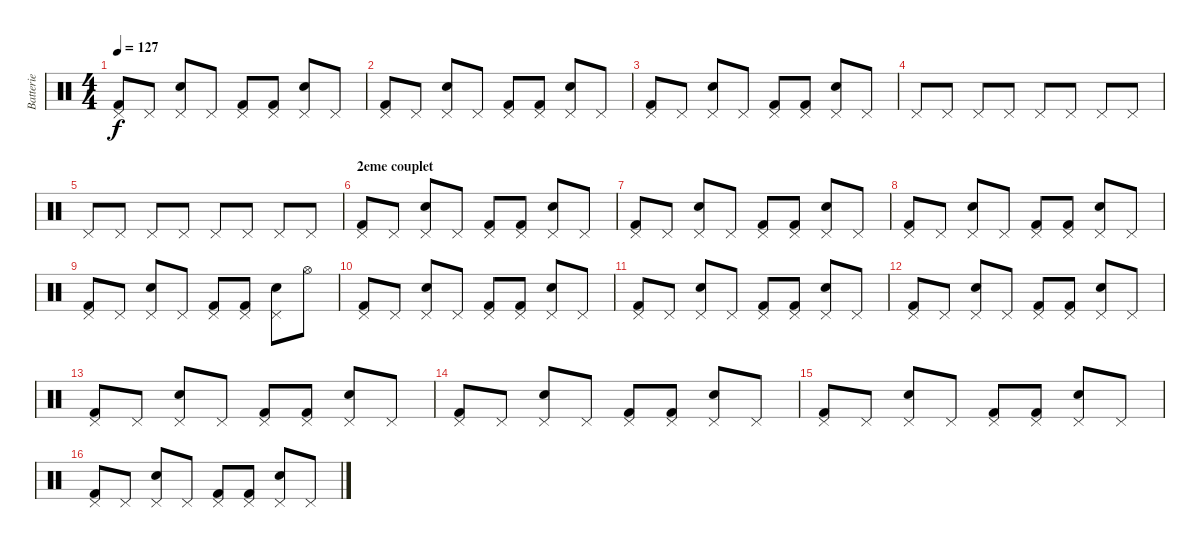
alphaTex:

\track ("Batterie" "Batterie") {instrument percussion}
\staff {score}
\articulation defaults
\ts (4 4)
\tempo 127
\clef neutral
\ks c
("Pedal Hi-Hat (hit)" "Kick (hit) 2").8{dy f} "Pedal Hi-Hat (hit)".8 ("Pedal Hi-Hat (hit)" "Electric Snare (hit)").8 "Pedal Hi-Hat (hit)".8 ("Pedal Hi-Hat (hit)" "Kick (hit) 2").8 ("Pedal Hi-Hat (hit)" "Kick (hit) 2").8 ("Pedal Hi-Hat (hit)" "Electric Snare (hit)").8 "Pedal Hi-Hat (hit)".8 |
("Pedal Hi-Hat (hit)" "Kick (hit) 2").8 "Pedal Hi-Hat (hit)".8 ("Pedal Hi-Hat (hit)" "Electric Snare (hit)").8 "Pedal Hi-Hat (hit)".8 ("Pedal Hi-Hat (hit)" "Kick (hit) 2").8 ("Pedal Hi-Hat (hit)" "Kick (hit) 2").8 ("Pedal Hi-Hat (hit)" "Electric Snare (hit)").8 "Pedal Hi-Hat (hit)".8 |
("Pedal Hi-Hat (hit)" "Kick (hit) 2").8 "Pedal Hi-Hat (hit)".8 ("Pedal Hi-Hat (hit)" "Electric Snare (hit)").8 "Pedal Hi-Hat (hit)".8 ("Pedal Hi-Hat (hit)" "Kick (hit) 2").8 ("Pedal Hi-Hat (hit)" "Kick (hit) 2").8 ("Pedal Hi-Hat (hit)" "Electric Snare (hit)").8 "Pedal Hi-Hat (hit)".8 |
"Pedal Hi-Hat (hit)".8 "Pedal Hi-Hat (hit)".8 "Pedal Hi-Hat (hit)".8 "Pedal Hi-Hat (hit)".8 "Pedal Hi-Hat (hit)".8 "Pedal Hi-Hat (hit)".8 "Pedal Hi-Hat (hit)".8 "Pedal Hi-Hat (hit)".8 |
"Pedal Hi-Hat (hit)".8 "Pedal Hi-Hat (hit)".8 "Pedal Hi-Hat (hit)".8 "Pedal Hi-Hat (hit)".8 "Pedal Hi-Hat (hit)".8 "Pedal Hi-Hat (hit)".8 "Pedal Hi-Hat (hit)".8 "Pedal Hi-Hat (hit)".8 |
\section ("" "2eme couplet")
("Pedal Hi-Hat (hit)" "Kick (hit) 2").8 "Pedal Hi-Hat (hit)".8 ("Pedal Hi-Hat (hit)" "Electric Snare (hit)").8 "Pedal Hi-Hat (hit)".8 ("Pedal Hi-Hat (hit)" "Kick (hit) 2").8 ("Pedal Hi-Hat (hit)" "Kick (hit) 2").8 ("Pedal Hi-Hat (hit)" "Electric Snare (hit)").8 "Pedal Hi-Hat (hit)".8 |
("Pedal Hi-Hat (hit)" "Kick (hit) 2").8 "Pedal Hi-Hat (hit)".8 ("Pedal Hi-Hat (hit)" "Electric Snare (hit)").8 "Pedal Hi-Hat (hit)".8 ("Pedal Hi-Hat (hit)" "Kick (hit) 2").8 ("Pedal Hi-Hat (hit)" "Kick (hit) 2").8 ("Pedal Hi-Hat (hit)" "Electric Snare (hit)").8 "Pedal Hi-Hat (hit)".8 |
("Pedal Hi-Hat (hit)" "Kick (hit) 2").8 "Pedal Hi-Hat (hit)".8 ("Pedal Hi-Hat (hit)" "Electric Snare (hit)").8 "Pedal Hi-Hat (hit)".8 ("Pedal Hi-Hat (hit)" "Kick (hit) 2").8 ("Pedal Hi-Hat (hit)" "Kick (hit) 2").8 ("Pedal Hi-Hat (hit)" "Electric Snare (hit)").8 "Pedal Hi-Hat (hit)".8 |
("Pedal Hi-Hat (hit)" "Kick (hit) 2").8 "Pedal Hi-Hat (hit)".8 ("Pedal Hi-Hat (hit)" "Electric Snare (hit)").8 "Pedal Hi-Hat (hit)".8 ("Pedal Hi-Hat (hit)" "Kick (hit) 2").8 ("Pedal Hi-Hat (hit)" "Kick (hit) 2").8 ("Pedal Hi-Hat (hit)" "Electric Snare (hit)").8 "Hi-Hat (open)".8 |
("Pedal Hi-Hat (hit)" "Kick (hit) 2").8 "Pedal Hi-Hat (hit)".8 ("Pedal Hi-Hat (hit)" "Electric Snare (hit)").8 "Pedal Hi-Hat (hit)".8 ("Pedal Hi-Hat (hit)" "Kick (hit) 2").8 ("Pedal Hi-Hat (hit)" "Kick (hit) 2").8 ("Pedal Hi-Hat (hit)" "Electric Snare (hit)").8 "Pedal Hi-Hat (hit)".8 |
("Pedal Hi-Hat (hit)" "Kick (hit) 2").8 "Pedal Hi-Hat (hit)".8 ("Pedal Hi-Hat (hit)" "Electric Snare (hit)").8 "Pedal Hi-Hat (hit)".8 ("Pedal Hi-Hat (hit)" "Kick (hit) 2").8 ("Pedal Hi-Hat (hit)" "Kick (hit) 2").8 ("Pedal Hi-Hat (hit)" "Electric Snare (hit)").8 "Pedal Hi-Hat (hit)".8 |
("Pedal Hi-Hat (hit)" "Kick (hit) 2").8 "Pedal Hi-Hat (hit)".8 ("Pedal Hi-Hat (hit)" "Electric Snare (hit)").8 "Pedal Hi-Hat (hit)".8 ("Pedal Hi-Hat (hit)" "Kick (hit) 2").8 ("Pedal Hi-Hat (hit)" "Kick (hit) 2").8 ("Pedal Hi-Hat (hit)" "Electric Snare (hit)").8 "Pedal Hi-Hat (hit)".8 |
("Pedal Hi-Hat (hit)" "Kick (hit) 2").8 "Pedal Hi-Hat (hit)".8 ("Pedal Hi-Hat (hit)" "Electric Snare (hit)").8 "Pedal Hi-Hat (hit)".8 ("Pedal Hi-Hat (hit)" "Kick (hit) 2").8 ("Pedal Hi-Hat (hit)" "Kick (hit) 2").8 ("Pedal Hi-Hat (hit)" "Electric Snare (hit)").8 "Pedal Hi-Hat (hit)".8 |
("Pedal Hi-Hat (hit)" "Kick (hit) 2").8 "Pedal Hi-Hat (hit)".8 ("Pedal Hi-Hat (hit)" "Electric Snare (hit)").8 "Pedal Hi-Hat (hit)".8 ("Pedal Hi-Hat (hit)" "Kick (hit) 2").8 ("Pedal Hi-Hat (hit)" "Kick (hit) 2").8 ("Pedal Hi-Hat (hit)" "Electric Snare (hit)").8 "Pedal Hi-Hat (hit)".8 |
("Pedal Hi-Hat (hit)" "Kick (hit) 2").8 "Pedal Hi-Hat (hit)".8 ("Pedal Hi-Hat (hit)" "Electric Snare (hit)").8 "Pedal Hi-Hat (hit)".8 ("Pedal Hi-Hat (hit)" "Kick (hit) 2").8 ("Pedal Hi-Hat (hit)" "Kick (hit) 2").8 ("Pedal Hi-Hat (hit)" "Electric Snare (hit)").8 "Pedal Hi-Hat (hit)".8 |
("Pedal Hi-Hat (hit)" "Kick (hit) 2").8 "Pedal Hi-Hat (hit)".8 ("Pedal Hi-Hat (hit)" "Electric Snare (hit)").8 "Pedal Hi-Hat (hit)".8 ("Pedal Hi-Hat (hit)" "Kick (hit) 2").8 ("Pedal Hi-Hat (hit)" "Kick (hit) 2").8 ("Pedal Hi-Hat (hit)" "Electric Snare (hit)").8 "Pedal Hi-Hat (hit)".8
